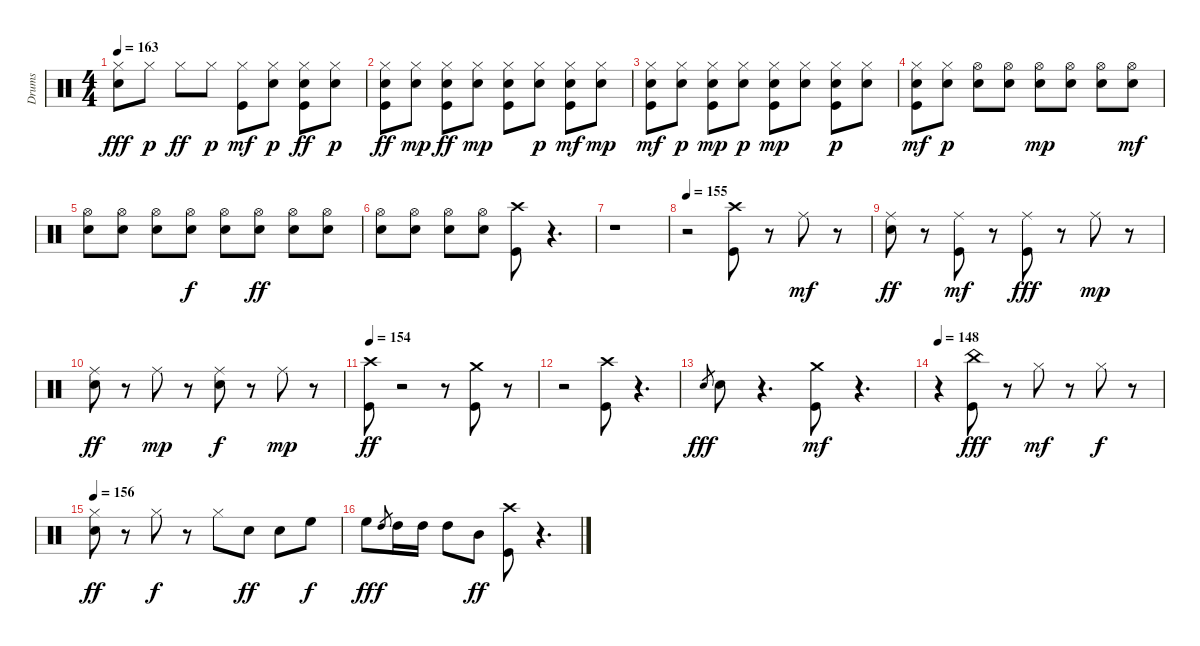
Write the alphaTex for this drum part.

\track ("Drums" "Drums") {instrument percussion}
\staff {score}
\articulation defaults
\ts (4 4)
\tempo 163
\clef neutral
\ks c
("Electric Snare (hit)" "Hi-Hat (closed)").8{dy fff} "Hi-Hat (closed)".8{dy p} "Hi-Hat (closed)".8{dy ff} "Hi-Hat (closed)".8{dy p} ("Kick (hit)" "Hi-Hat (closed)").8{dy mf} ("Snare (hit) 2" "Hi-Hat (closed)").8{dy p} ("Snare (hit) 2" "Kick (hit)" "Hi-Hat (closed)").8{dy ff} ("Snare (hit) 2" "Hi-Hat (closed)").8{dy p} |
("Snare (hit) 2" "Kick (hit)" "Hi-Hat (closed)").8{dy ff} ("Snare (hit) 2" "Hi-Hat (closed)").8{dy mp} ("Snare (hit) 2" "Kick (hit)" "Hi-Hat (closed)").8{dy ff} ("Snare (hit) 2" "Hi-Hat (closed)").8{dy mp} ("Snare (hit) 2" "Kick (hit)" "Hi-Hat (closed)").8 ("Snare (hit) 2" "Hi-Hat (closed)").8{dy p} ("Snare (hit) 2" "Kick (hit)" "Hi-Hat (closed)").8{dy mf} ("Snare (hit) 2" "Hi-Hat (closed)").8{dy mp} |
("Snare (hit) 2" "Kick (hit)" "Hi-Hat (closed)").8{dy mf} ("Snare (hit) 2" "Hi-Hat (closed)").8{dy p} ("Snare (hit) 2" "Kick (hit)" "Hi-Hat (closed)").8{dy mp} ("Snare (hit) 2" "Hi-Hat (closed)").8{dy p} ("Snare (hit) 2" "Kick (hit)" "Hi-Hat (closed)").8{dy mp} ("Snare (hit) 2" "Hi-Hat (closed)").8 ("Snare (hit) 2" "Kick (hit)" "Hi-Hat (closed)").8{dy p} ("Snare (hit) 2" "Hi-Hat (closed)").8 |
("Snare (hit) 2" "Kick (hit)" "Hi-Hat (closed)").8{dy mf} ("Snare (hit) 2" "Hi-Hat (closed)").8{dy p} ("Snare (hit) 2" "Hi-Hat (open)").8 ("Snare (hit) 2" "Hi-Hat (open)").8 ("Snare (hit) 2" "Hi-Hat (open)").8{dy mp} ("Snare (hit) 2" "Hi-Hat (open)").8 ("Snare (hit) 2" "Hi-Hat (open)").8 ("Snare (hit) 2" "Hi-Hat (open)").8{dy mf} |
("Snare (hit) 2" "Hi-Hat (open)").8 ("Snare (hit) 2" "Hi-Hat (open)").8 ("Snare (hit) 2" "Hi-Hat (open)").8 ("Snare (hit) 2" "Hi-Hat (open)").8{dy f} ("Snare (hit) 2" "Hi-Hat (open)").8 ("Snare (hit) 2" "Hi-Hat (open)").8{dy ff} ("Snare (hit) 2" "Hi-Hat (open)").8 ("Snare (hit) 2" "Hi-Hat (open)").8 |
("Snare (hit) 2" "Hi-Hat (open)").8 ("Snare (hit) 2" "Hi-Hat (open)").8 ("Snare (hit) 2" "Hi-Hat (open)").8 ("Snare (hit) 2" "Hi-Hat (open)").8 ("Kick (hit)" "Crash high (hit)").8 r.4{d} |
r.1 |
\tempo 155
r.2 ("Kick (hit)" "Crash high (hit)").8 r.8 "Ride (middle)".8{dy mf} r.8 |
("Electric Snare (hit)" "Ride (middle)").8{dy ff} r.8 ("Kick (hit)" "Ride (middle)").8{dy mf} r.8 ("Kick (hit)" "Ride (middle)").8{dy fff} r.8 "Ride (middle)".8{dy mp} r.8 |
("Electric Snare (hit)" "Ride (middle)").8{dy ff} r.8 "Ride (middle)".8{dy mp} r.8 ("Electric Snare (hit)" "Ride (middle)").8{dy f} r.8 "Ride (middle)".8{dy mp} r.8 |
\tempo 154
("Kick (hit)" "Crash high (hit)").8{dy ff} r.2 r.8 ("Kick (hit)" "Crash medium (hit)").8 r.8 |
r.2 ("Kick (hit)" "Crash high (hit)").8 r.4{d} |
"Electric Snare (hit)".8{gr dy fff} "Electric Snare (hit)".8 r.4{d} ("Kick (hit)" "Crash medium (hit)").8{dy mf} r.4{d} |
\tempo 148
r.4 ("Kick (hit)" "China (hit)").8{dy fff} r.8 "Hi-Hat (closed)".8{dy mf} r.8 "Hi-Hat (closed)".8{dy f} r.8 |
\tempo 156
("Electric Snare (hit)" "Hi-Hat (closed)").8{dy ff} r.8 "Hi-Hat (closed)".8{dy f} r.8 "Hi-Hat (closed)".8 "Electric Snare (hit)".8{dy ff} "Electric Snare (hit)".8 "High Floor Tom (hit)".8{dy f} |
"High Floor Tom (hit)".8{dy ff} "High Tom (hit)".8{gr dy f} "High Tom (hit)".16 "High Tom (hit)".16 "High Tom (hit)".8 "Mid Tom (hit)".8{dy ff} ("Kick (hit)" "Crash high (hit)").8 r.4{d}
